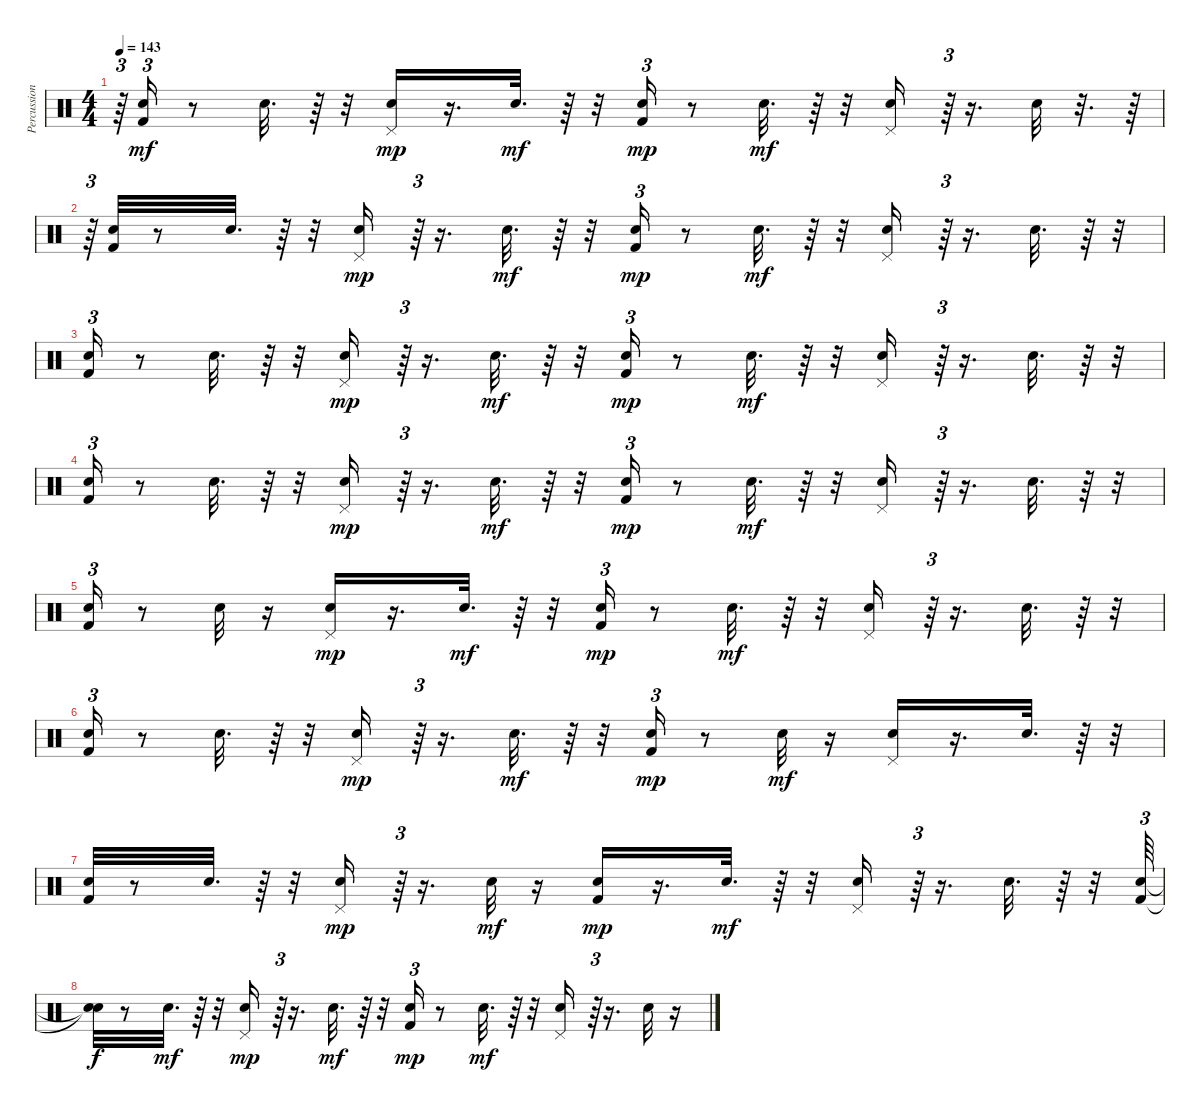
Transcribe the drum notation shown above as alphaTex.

\track ("Percussion" "Percussion") {instrument percussion}
\staff {score}
\articulation defaults
\ts (4 4)
\tempo 143
\clef neutral
\ks c
r.64{tu (3 2) dy mf} ("Kick (hit) 2" "Snare (hit) 2").16{tu (3 2)} r.8 "Snare (hit) 2".32{d} r.64 r.32 ("Pedal Hi-Hat (hit)" "Hand Clap (hit)").16{dy mp} r.16{d} "Hand Clap (hit)".32{d dy mf} r.64 r.32 ("Kick (hit) 2" "Snare (hit) 2").16{tu (3 2) dy mp} r.8 "Snare (hit) 2".32{d dy mf} r.64 r.32 ("Hand Clap (hit)" "Pedal Hi-Hat (hit)").16 r.64{tu (3 2)} r.16{d} "Hand Clap (hit)".32 r.32{d} r.64 |
r.64{tu (3 2)} ("Kick (hit) 2" "Snare (hit) 2").32 r.8 "Snare (hit) 2".32{d} r.64 r.32 ("Hand Clap (hit)" "Pedal Hi-Hat (hit)").16{dy mp} r.64{tu (3 2)} r.16{d} "Hand Clap (hit)".32{d dy mf} r.64 r.32 ("Kick (hit) 2" "Snare (hit) 2").16{tu (3 2) dy mp} r.8 "Snare (hit) 2".32{d dy mf} r.64 r.32 ("Hand Clap (hit)" "Pedal Hi-Hat (hit)").16 r.64{tu (3 2)} r.16{d} "Hand Clap (hit)".32{d} r.64 r.32 |
("Kick (hit) 2" "Snare (hit) 2").16{tu (3 2)} r.8 "Snare (hit) 2".32{d} r.64 r.32 ("Hand Clap (hit)" "Pedal Hi-Hat (hit)").16{dy mp} r.64{tu (3 2)} r.16{d} "Hand Clap (hit)".32{d dy mf} r.64 r.32 ("Kick (hit) 2" "Snare (hit) 2").16{tu (3 2) dy mp} r.8 "Snare (hit) 2".32{d dy mf} r.64 r.32 ("Hand Clap (hit)" "Pedal Hi-Hat (hit)").16 r.64{tu (3 2)} r.16{d} "Hand Clap (hit)".32{d} r.64 r.32 |
("Kick (hit) 2" "Snare (hit) 2").16{tu (3 2)} r.8 "Snare (hit) 2".32{d} r.64 r.32 ("Hand Clap (hit)" "Pedal Hi-Hat (hit)").16{dy mp} r.64{tu (3 2)} r.16{d} "Hand Clap (hit)".32{d dy mf} r.64 r.32 ("Kick (hit) 2" "Snare (hit) 2").16{tu (3 2) dy mp} r.8 "Snare (hit) 2".32{d dy mf} r.64 r.32 ("Hand Clap (hit)" "Pedal Hi-Hat (hit)").16 r.64{tu (3 2)} r.16{d} "Hand Clap (hit)".32{d} r.64 r.32 |
("Kick (hit) 2" "Snare (hit) 2").16{tu (3 2)} r.8 "Snare (hit) 2".32 r.16 ("Hand Clap (hit)" "Pedal Hi-Hat (hit)").16{dy mp} r.16{d} "Hand Clap (hit)".32{d dy mf} r.64 r.32 ("Kick (hit) 2" "Snare (hit) 2").16{tu (3 2) dy mp} r.8 "Snare (hit) 2".32{d dy mf} r.64 r.32 ("Hand Clap (hit)" "Pedal Hi-Hat (hit)").16 r.64{tu (3 2)} r.16{d} "Hand Clap (hit)".32{d} r.64 r.32 |
("Kick (hit) 2" "Snare (hit) 2").16{tu (3 2)} r.8 "Snare (hit) 2".32{d} r.64 r.32 ("Hand Clap (hit)" "Pedal Hi-Hat (hit)").16{dy mp} r.64{tu (3 2)} r.16{d} "Hand Clap (hit)".32{d dy mf} r.64 r.32 ("Kick (hit) 2" "Snare (hit) 2").16{tu (3 2) dy mp} r.8 "Snare (hit) 2".32{dy mf} r.16 ("Hand Clap (hit)" "Pedal Hi-Hat (hit)").16 r.16{d} "Hand Clap (hit)".32{d} r.64 r.32 |
("Kick (hit) 2" "Snare (hit) 2").32 r.8 "Snare (hit) 2".32{d} r.64 r.32 ("Hand Clap (hit)" "Pedal Hi-Hat (hit)").16{dy mp} r.64{tu (3 2)} r.16{d} "Hand Clap (hit)".32{dy mf} r.16 ("Kick (hit) 2" "Snare (hit) 2").16{dy mp} r.16{d} "Snare (hit) 2".32{d dy mf} r.64 r.32 ("Hand Clap (hit)" "Pedal Hi-Hat (hit)").16 r.64{tu (3 2)} r.16{d} "Hand Clap (hit)".32{d} r.64 r.32 ("Kick (hit) 2" "Snare (hit) 2").64{tu (3 2)} |
("Snare (hit)"{t} "Snare (hit)"{t}).32{dy f} r.8 "Snare (hit) 2".32{d dy mf} r.64 r.32 ("Hand Clap (hit)" "Pedal Hi-Hat (hit)").16{dy mp} r.64{tu (3 2)} r.16{d} "Hand Clap (hit)".32{d dy mf} r.64 r.32 ("Kick (hit) 2" "Snare (hit) 2").16{tu (3 2) dy mp} r.8 "Snare (hit) 2".32{d dy mf} r.64 r.32 ("Hand Clap (hit)" "Pedal Hi-Hat (hit)").16 r.64{tu (3 2)} r.16{d} "Hand Clap (hit)".32 r.16
